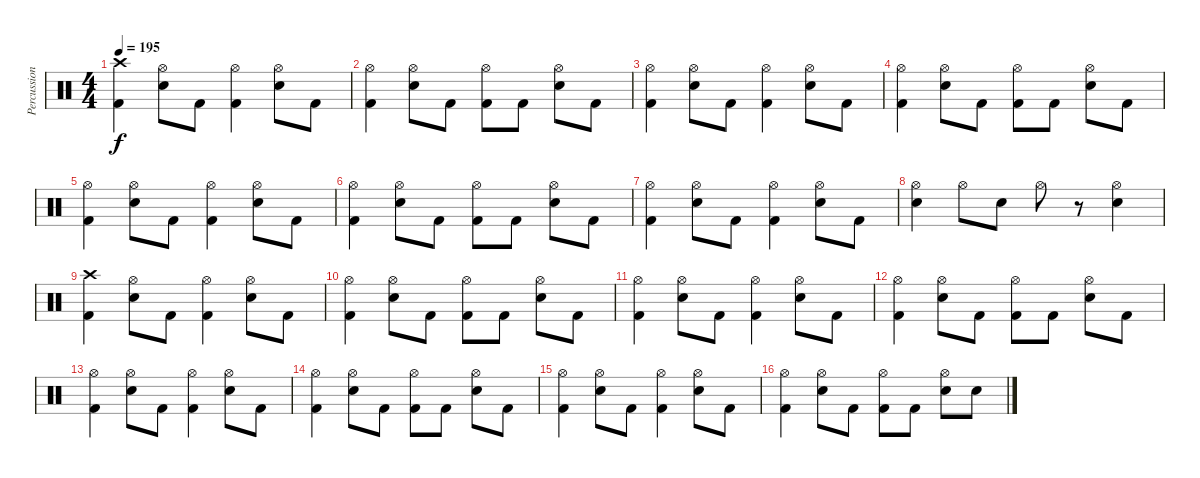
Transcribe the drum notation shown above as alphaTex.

\track ("Percussions" "Percussion") {instrument percussion}
\staff {score}
\articulation defaults
\ts (4 4)
\tempo 195
\clef neutral
\ks c
("Crash high (hit)" "Kick (hit) 2").4{dy f} ("Hi-Hat (open)" "Snare (hit) 2").8 "Kick (hit) 2".8 ("Hi-Hat (open)" "Kick (hit) 2").4 ("Hi-Hat (open)" "Snare (hit) 2").8 "Kick (hit) 2".8 |
("Hi-Hat (open)" "Kick (hit) 2").4 ("Hi-Hat (open)" "Snare (hit) 2").8 "Kick (hit) 2".8 ("Hi-Hat (open)" "Kick (hit) 2").8 "Kick (hit) 2".8 ("Hi-Hat (open)" "Snare (hit) 2").8 "Kick (hit) 2".8 |
("Hi-Hat (open)" "Kick (hit) 2").4 ("Hi-Hat (open)" "Snare (hit) 2").8 "Kick (hit) 2".8 ("Hi-Hat (open)" "Kick (hit) 2").4 ("Hi-Hat (open)" "Snare (hit) 2").8 "Kick (hit) 2".8 |
("Hi-Hat (open)" "Kick (hit) 2").4 ("Hi-Hat (open)" "Snare (hit) 2").8 "Kick (hit) 2".8 ("Hi-Hat (open)" "Kick (hit) 2").8 "Kick (hit) 2".8 ("Hi-Hat (open)" "Snare (hit) 2").8 "Kick (hit) 2".8 |
("Hi-Hat (open)" "Kick (hit) 2").4 ("Hi-Hat (open)" "Snare (hit) 2").8 "Kick (hit) 2".8 ("Hi-Hat (open)" "Kick (hit) 2").4 ("Hi-Hat (open)" "Snare (hit) 2").8 "Kick (hit) 2".8 |
("Hi-Hat (open)" "Kick (hit) 2").4 ("Hi-Hat (open)" "Snare (hit) 2").8 "Kick (hit) 2".8 ("Hi-Hat (open)" "Kick (hit) 2").8 "Kick (hit) 2".8 ("Hi-Hat (open)" "Snare (hit) 2").8 "Kick (hit) 2".8 |
("Hi-Hat (open)" "Kick (hit) 2").4 ("Hi-Hat (open)" "Snare (hit) 2").8 "Kick (hit) 2".8 ("Hi-Hat (open)" "Kick (hit) 2").4 ("Hi-Hat (open)" "Snare (hit) 2").8 "Kick (hit) 2".8 |
("Hi-Hat (open)" "Snare (hit) 2").4 "Hi-Hat (open)".8 "Snare (hit) 2".8 "Hi-Hat (open)".8 r.8 ("Hi-Hat (open)" "Snare (hit) 2").4 |
("Crash high (hit)" "Kick (hit) 2").4 ("Hi-Hat (open)" "Snare (hit) 2").8 "Kick (hit) 2".8 ("Hi-Hat (open)" "Kick (hit) 2").4 ("Hi-Hat (open)" "Snare (hit) 2").8 "Kick (hit) 2".8 |
("Hi-Hat (open)" "Kick (hit) 2").4 ("Hi-Hat (open)" "Snare (hit) 2").8 "Kick (hit) 2".8 ("Hi-Hat (open)" "Kick (hit) 2").8 "Kick (hit) 2".8 ("Hi-Hat (open)" "Snare (hit) 2").8 "Kick (hit) 2".8 |
("Hi-Hat (open)" "Kick (hit) 2").4 ("Hi-Hat (open)" "Snare (hit) 2").8 "Kick (hit) 2".8 ("Hi-Hat (open)" "Kick (hit) 2").4 ("Hi-Hat (open)" "Snare (hit) 2").8 "Kick (hit) 2".8 |
("Hi-Hat (open)" "Kick (hit) 2").4 ("Hi-Hat (open)" "Snare (hit) 2").8 "Kick (hit) 2".8 ("Hi-Hat (open)" "Kick (hit) 2").8 "Kick (hit) 2".8 ("Hi-Hat (open)" "Snare (hit) 2").8 "Kick (hit) 2".8 |
("Hi-Hat (open)" "Kick (hit) 2").4 ("Hi-Hat (open)" "Snare (hit) 2").8 "Kick (hit) 2".8 ("Hi-Hat (open)" "Kick (hit) 2").4 ("Hi-Hat (open)" "Snare (hit) 2").8 "Kick (hit) 2".8 |
("Hi-Hat (open)" "Kick (hit) 2").4 ("Hi-Hat (open)" "Snare (hit) 2").8 "Kick (hit) 2".8 ("Hi-Hat (open)" "Kick (hit) 2").8 "Kick (hit) 2".8 ("Hi-Hat (open)" "Snare (hit) 2").8 "Kick (hit) 2".8 |
("Hi-Hat (open)" "Kick (hit) 2").4 ("Hi-Hat (open)" "Snare (hit) 2").8 "Kick (hit) 2".8 ("Hi-Hat (open)" "Kick (hit) 2").4 ("Hi-Hat (open)" "Snare (hit) 2").8 "Kick (hit) 2".8 |
("Hi-Hat (open)" "Kick (hit) 2").4 ("Hi-Hat (open)" "Snare (hit) 2").8 "Kick (hit) 2".8 ("Hi-Hat (open)" "Kick (hit) 2").8 "Kick (hit) 2".8 ("Hi-Hat (open)" "Snare (hit) 2").8 "Snare (hit) 2".8
